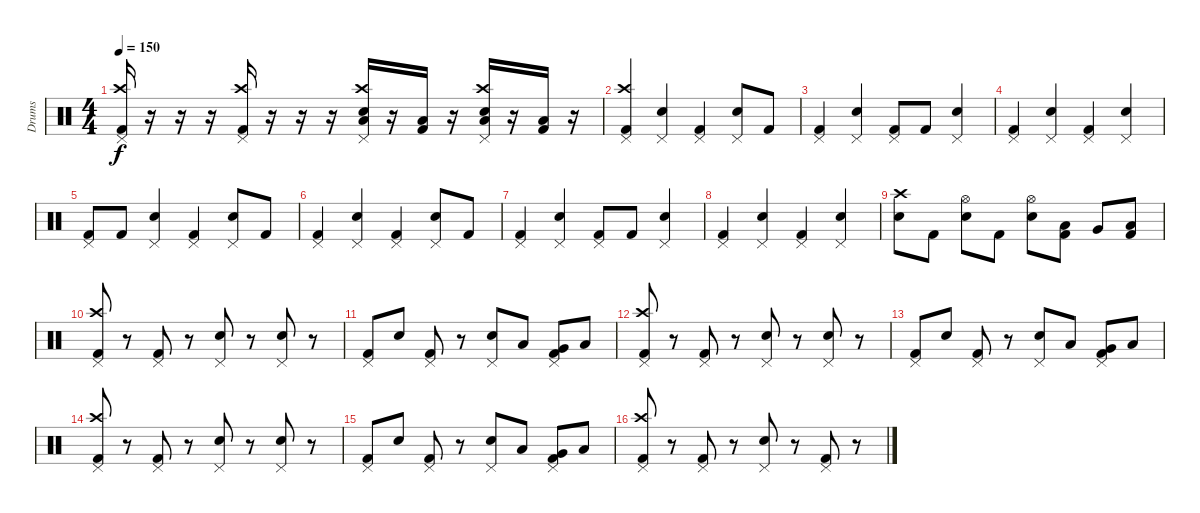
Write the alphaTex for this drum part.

\track ("Drums" "Drums") {instrument percussion}
\staff {score}
\articulation defaults
\ts (4 4)
\tempo 150
\clef neutral
\ks c
("Pedal Hi-Hat (hit)" "Crash high (hit)" "Kick (hit) 2").16{dy f} r.16 r.16 r.16 ("Pedal Hi-Hat (hit)" "Crash high (hit)" "Kick (hit) 2").16 r.16 r.16 r.16 ("Pedal Hi-Hat (hit)" "Crash high (hit)" "Low Floor Tom (hit)" "Electric Snare (hit)").16 r.16 ("Low Floor Tom (hit)" "Kick (hit) 2").16 r.16 ("Pedal Hi-Hat (hit)" "Crash high (hit)" "Low Floor Tom (hit)" "Electric Snare (hit)").16 r.16 ("Low Floor Tom (hit)" "Kick (hit) 2").16 r.16 |
("Crash high (hit)" "Pedal Hi-Hat (hit)" "Kick (hit) 2").4 ("Pedal Hi-Hat (hit)" "Electric Snare (hit)").4 ("Pedal Hi-Hat (hit)" "Kick (hit) 2").4 ("Pedal Hi-Hat (hit)" "Electric Snare (hit)").8 "Kick (hit) 2".8 |
("Pedal Hi-Hat (hit)" "Kick (hit) 2").4 ("Pedal Hi-Hat (hit)" "Electric Snare (hit)").4 ("Pedal Hi-Hat (hit)" "Kick (hit) 2").8 "Kick (hit) 2".8 ("Pedal Hi-Hat (hit)" "Electric Snare (hit)").4 |
("Pedal Hi-Hat (hit)" "Kick (hit) 2").4 ("Pedal Hi-Hat (hit)" "Electric Snare (hit)").4 ("Pedal Hi-Hat (hit)" "Kick (hit) 2").4 ("Pedal Hi-Hat (hit)" "Electric Snare (hit)").4 |
("Pedal Hi-Hat (hit)" "Kick (hit) 2").8 "Kick (hit) 2".8 ("Pedal Hi-Hat (hit)" "Electric Snare (hit)").4 ("Pedal Hi-Hat (hit)" "Kick (hit) 2").4 ("Pedal Hi-Hat (hit)" "Electric Snare (hit)").8 "Kick (hit) 2".8 |
("Pedal Hi-Hat (hit)" "Kick (hit) 2").4 ("Pedal Hi-Hat (hit)" "Electric Snare (hit)").4 ("Pedal Hi-Hat (hit)" "Kick (hit) 2").4 ("Pedal Hi-Hat (hit)" "Electric Snare (hit)").8 "Kick (hit) 2".8 |
("Pedal Hi-Hat (hit)" "Kick (hit) 2").4 ("Pedal Hi-Hat (hit)" "Electric Snare (hit)").4 ("Pedal Hi-Hat (hit)" "Kick (hit) 2").8 "Kick (hit) 2".8 ("Pedal Hi-Hat (hit)" "Electric Snare (hit)").4 |
("Pedal Hi-Hat (hit)" "Kick (hit) 2").4 ("Pedal Hi-Hat (hit)" "Electric Snare (hit)").4 ("Pedal Hi-Hat (hit)" "Kick (hit) 2").4 ("Pedal Hi-Hat (hit)" "Electric Snare (hit)").4 |
("Crash high (hit)" "Electric Snare (hit)").8 "Kick (hit) 2".8 ("Hi-Hat (open)" "Electric Snare (hit)").8 "Kick (hit) 2".8 ("Hi-Hat (open)" "Electric Snare (hit)").8 ("Low Tom (hit)" "Kick (hit) 2").8 "Very Low Tom (hit)".8 ("Low Floor Tom (hit)" "Kick (hit) 2").8 |
("Pedal Hi-Hat (hit)" "Crash high (hit)" "Kick (hit) 2").8 r.8 ("Pedal Hi-Hat (hit)" "Kick (hit) 2").8 r.8 ("Pedal Hi-Hat (hit)" "Electric Snare (hit)").8 r.8 ("Pedal Hi-Hat (hit)" "Electric Snare (hit)").8 r.8 |
("Pedal Hi-Hat (hit)" "Kick (hit) 2").8 "Electric Snare (hit)".8 ("Pedal Hi-Hat (hit)" "Kick (hit) 2").8 r.8 ("Pedal Hi-Hat (hit)" "Electric Snare (hit)").8 "Low Tom (hit)".8 ("Pedal Hi-Hat (hit)" "Very Low Tom (hit)" "Kick (hit) 2").8 "Low Floor Tom (hit)".8 |
("Pedal Hi-Hat (hit)" "Crash high (hit)" "Kick (hit) 2").8 r.8 ("Pedal Hi-Hat (hit)" "Kick (hit) 2").8 r.8 ("Pedal Hi-Hat (hit)" "Electric Snare (hit)").8 r.8 ("Pedal Hi-Hat (hit)" "Electric Snare (hit)").8 r.8 |
("Pedal Hi-Hat (hit)" "Kick (hit) 2").8 "Electric Snare (hit)".8 ("Pedal Hi-Hat (hit)" "Kick (hit) 2").8 r.8 ("Pedal Hi-Hat (hit)" "Electric Snare (hit)").8 "Low Tom (hit)".8 ("Pedal Hi-Hat (hit)" "Very Low Tom (hit)" "Kick (hit) 2").8 "Low Floor Tom (hit)".8 |
("Pedal Hi-Hat (hit)" "Crash high (hit)" "Kick (hit) 2").8 r.8 ("Pedal Hi-Hat (hit)" "Kick (hit) 2").8 r.8 ("Pedal Hi-Hat (hit)" "Electric Snare (hit)").8 r.8 ("Pedal Hi-Hat (hit)" "Electric Snare (hit)").8 r.8 |
("Pedal Hi-Hat (hit)" "Kick (hit) 2").8 "Electric Snare (hit)".8 ("Pedal Hi-Hat (hit)" "Kick (hit) 2").8 r.8 ("Pedal Hi-Hat (hit)" "Electric Snare (hit)").8 "Low Tom (hit)".8 ("Pedal Hi-Hat (hit)" "Very Low Tom (hit)" "Kick (hit) 2").8 "Low Floor Tom (hit)".8 |
("Pedal Hi-Hat (hit)" "Crash high (hit)" "Kick (hit) 2").8 r.8 ("Pedal Hi-Hat (hit)" "Kick (hit) 2").8 r.8 ("Pedal Hi-Hat (hit)" "Electric Snare (hit)").8 r.8 ("Pedal Hi-Hat (hit)" "Kick (hit) 2").8 r.8
